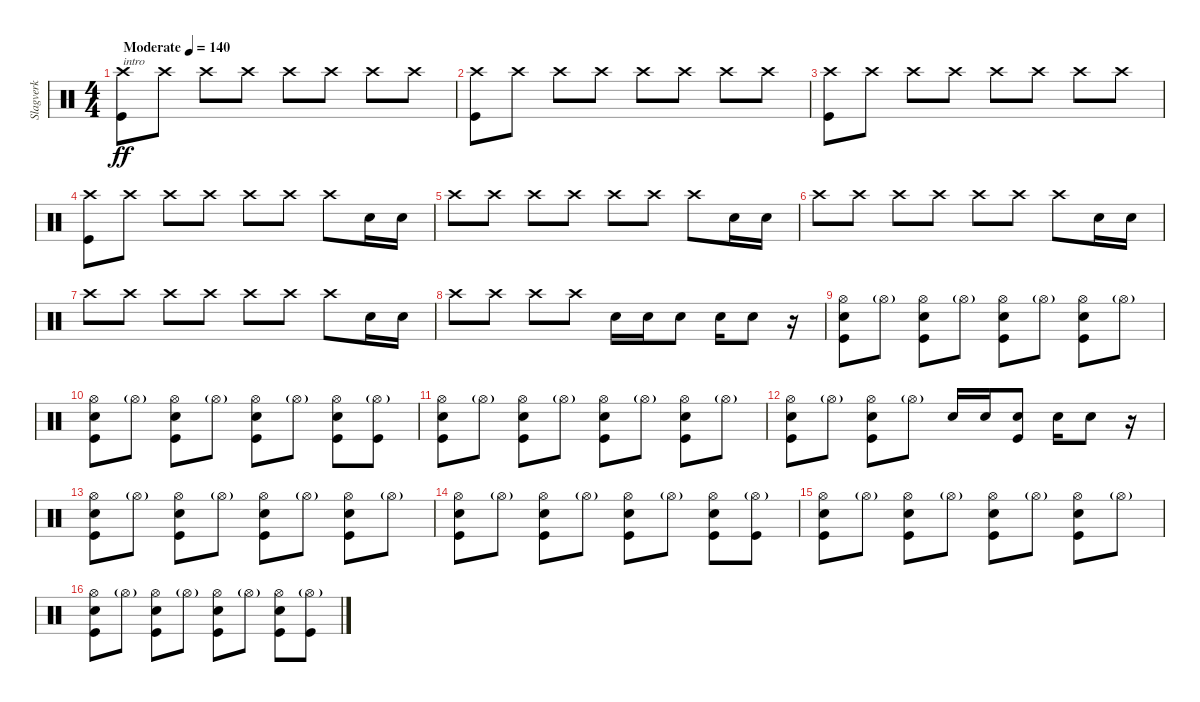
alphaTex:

\track ("Slagverk" "Slagverk") {instrument percussion}
\staff {score}
\articulation defaults
\ts (4 4)
\tempo (140 "Moderate")
\clef neutral
\ks c
("Crash high (hit)" "Kick (hit)").8{txt "intro" dy ff} "Crash high (hit)".8 "Crash high (hit)".8 "Crash high (hit)".8 "Crash high (hit)".8 "Crash high (hit)".8 "Crash high (hit)".8 "Crash high (hit)".8 |
("Crash high (hit)" "Kick (hit)").8 "Crash high (hit)".8 "Crash high (hit)".8 "Crash high (hit)".8 "Crash high (hit)".8 "Crash high (hit)".8 "Crash high (hit)".8 "Crash high (hit)".8 |
("Crash high (hit)" "Kick (hit)").8 "Crash high (hit)".8 "Crash high (hit)".8 "Crash high (hit)".8 "Crash high (hit)".8 "Crash high (hit)".8 "Crash high (hit)".8 "Crash high (hit)".8 |
("Crash high (hit)" "Kick (hit)").8 "Crash high (hit)".8 "Crash high (hit)".8 "Crash high (hit)".8 "Crash high (hit)".8 "Crash high (hit)".8 "Crash high (hit)".8 "Snare (hit) 2".16 "Snare (hit) 2".16 |
"Crash high (hit)".8 "Crash high (hit)".8 "Crash high (hit)".8 "Crash high (hit)".8 "Crash high (hit)".8 "Crash high (hit)".8 "Crash high (hit)".8 "Snare (hit) 2".16 "Snare (hit) 2".16 |
"Crash high (hit)".8 "Crash high (hit)".8 "Crash high (hit)".8 "Crash high (hit)".8 "Crash high (hit)".8 "Crash high (hit)".8 "Crash high (hit)".8 "Snare (hit) 2".16 "Snare (hit) 2".16 |
"Crash high (hit)".8 "Crash high (hit)".8 "Crash high (hit)".8 "Crash high (hit)".8 "Crash high (hit)".8 "Crash high (hit)".8 "Crash high (hit)".8 "Snare (hit) 2".16 "Snare (hit) 2".16 |
"Crash high (hit)".8 "Crash high (hit)".8 "Crash high (hit)".8 "Crash high (hit)".8 "Snare (hit) 2".16 "Snare (hit) 2".16 "Snare (hit) 2".8 "Snare (hit) 2".16 "Snare (hit) 2".8 r.16 |
("Hi-Hat (open)" "Kick (hit)" "Snare (hit) 2").8 "Hi-Hat (open)"{g}.8 ("Hi-Hat (open)" "Kick (hit)" "Snare (hit) 2").8 "Hi-Hat (open)"{g}.8 ("Hi-Hat (open)" "Kick (hit)" "Snare (hit) 2").8 "Hi-Hat (open)"{g}.8 ("Hi-Hat (open)" "Kick (hit)" "Snare (hit) 2").8 "Hi-Hat (open)"{g}.8 |
("Hi-Hat (open)" "Kick (hit)" "Snare (hit) 2").8 "Hi-Hat (open)"{g}.8 ("Hi-Hat (open)" "Kick (hit)" "Snare (hit) 2").8 "Hi-Hat (open)"{g}.8 ("Hi-Hat (open)" "Kick (hit)" "Snare (hit) 2").8 "Hi-Hat (open)"{g}.8 ("Hi-Hat (open)" "Kick (hit)" "Snare (hit) 2").8 ("Hi-Hat (open)"{g} "Kick (hit)").8 |
("Hi-Hat (open)" "Kick (hit)" "Snare (hit) 2").8 "Hi-Hat (open)"{g}.8 ("Hi-Hat (open)" "Kick (hit)" "Snare (hit) 2").8 "Hi-Hat (open)"{g}.8 ("Hi-Hat (open)" "Kick (hit)" "Snare (hit) 2").8 "Hi-Hat (open)"{g}.8 ("Hi-Hat (open)" "Kick (hit)" "Snare (hit) 2").8 "Hi-Hat (open)"{g}.8 |
("Hi-Hat (open)" "Kick (hit)" "Snare (hit) 2").8 "Hi-Hat (open)"{g}.8 ("Hi-Hat (open)" "Kick (hit)" "Snare (hit) 2").8 "Hi-Hat (open)"{g}.8 "Snare (hit) 2".16 "Snare (hit) 2".16 ("Snare (hit) 2" "Kick (hit)").8 "Snare (hit) 2".16 "Snare (hit) 2".8 r.16 |
("Hi-Hat (open)" "Kick (hit)" "Snare (hit) 2").8 "Hi-Hat (open)"{g}.8 ("Hi-Hat (open)" "Kick (hit)" "Snare (hit) 2").8 "Hi-Hat (open)"{g}.8 ("Hi-Hat (open)" "Kick (hit)" "Snare (hit) 2").8 "Hi-Hat (open)"{g}.8 ("Hi-Hat (open)" "Kick (hit)" "Snare (hit) 2").8 "Hi-Hat (open)"{g}.8 |
("Hi-Hat (open)" "Kick (hit)" "Snare (hit) 2").8 "Hi-Hat (open)"{g}.8 ("Hi-Hat (open)" "Kick (hit)" "Snare (hit) 2").8 "Hi-Hat (open)"{g}.8 ("Hi-Hat (open)" "Kick (hit)" "Snare (hit) 2").8 "Hi-Hat (open)"{g}.8 ("Hi-Hat (open)" "Kick (hit)" "Snare (hit) 2").8 ("Hi-Hat (open)"{g} "Kick (hit)").8 |
("Hi-Hat (open)" "Kick (hit)" "Snare (hit) 2").8 "Hi-Hat (open)"{g}.8 ("Hi-Hat (open)" "Kick (hit)" "Snare (hit) 2").8 "Hi-Hat (open)"{g}.8 ("Hi-Hat (open)" "Kick (hit)" "Snare (hit) 2").8 "Hi-Hat (open)"{g}.8 ("Hi-Hat (open)" "Kick (hit)" "Snare (hit) 2").8 "Hi-Hat (open)"{g}.8 |
("Hi-Hat (open)" "Kick (hit)" "Snare (hit) 2").8 "Hi-Hat (open)"{g}.8 ("Hi-Hat (open)" "Kick (hit)" "Snare (hit) 2").8 "Hi-Hat (open)"{g}.8 ("Hi-Hat (open)" "Kick (hit)" "Snare (hit) 2").8 "Hi-Hat (open)"{g}.8 ("Hi-Hat (open)" "Kick (hit)" "Snare (hit) 2").8 ("Hi-Hat (open)"{g} "Kick (hit)").8
